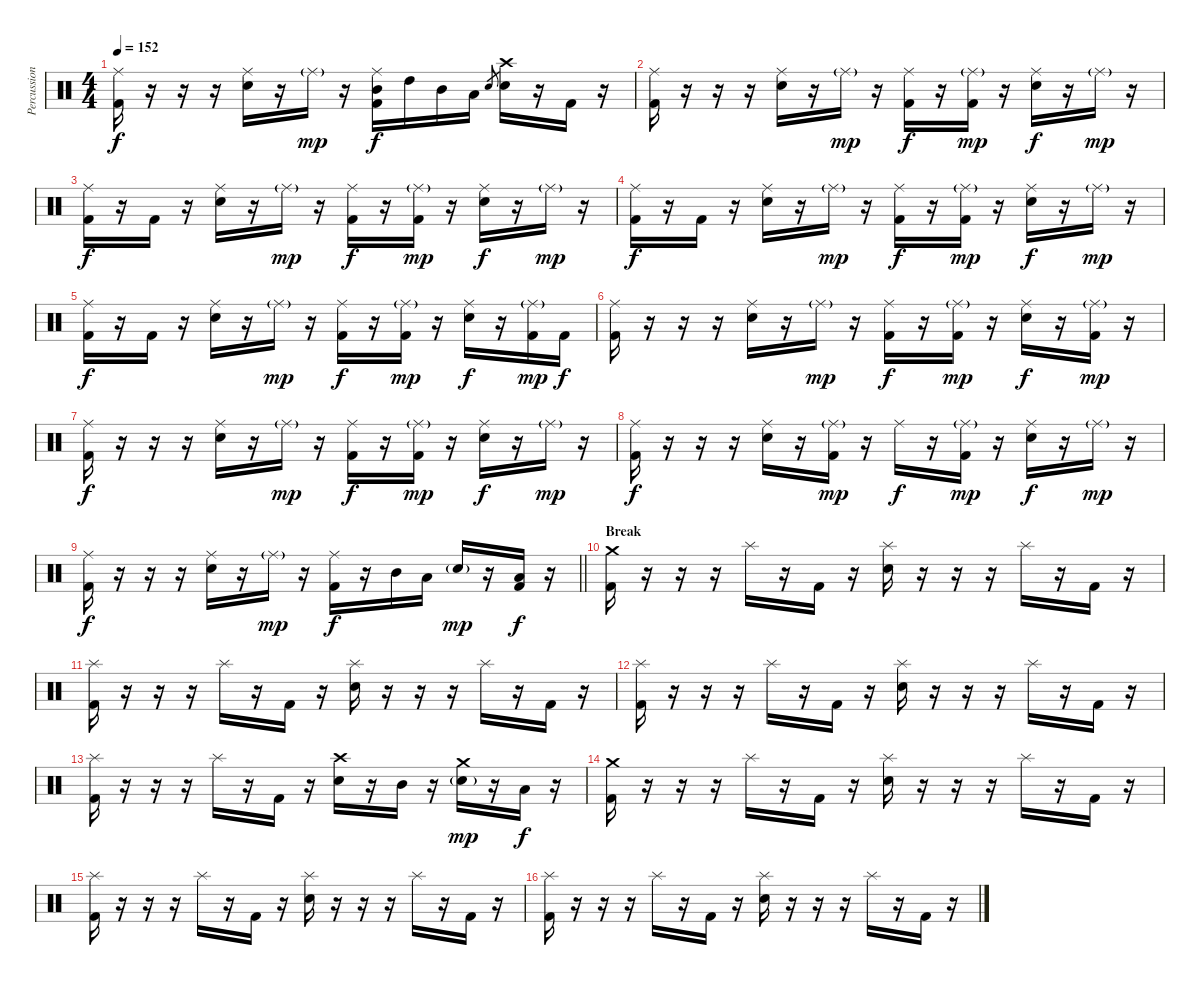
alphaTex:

\track ("Percussion" "Percussion") {instrument percussion}
\staff {score}
\articulation defaults
\ts (4 4)
\tempo 152
\clef neutral
\ks c
("Ride (middle)" "Kick (hit) 2").16{dy f} r.16 r.16 r.16 ("Ride (middle)" "Snare (hit) 2").16 r.16 "Ride (middle)"{g}.16{dy mp} r.16 ("Ride (middle)" "Mid Tom (hit)" "Kick (hit) 2").16{dy f} "High Tom (hit)".16 "Mid Tom (hit)".16 "Low Tom (hit)".16 "Snare (hit) 2".8{gr} ("Crash high (hit)" "Snare (hit) 2").16 r.16 "Kick (hit) 2".16 r.16 |
("Ride (middle)" "Kick (hit) 2").16 r.16 r.16 r.16 ("Ride (middle)" "Snare (hit) 2").16 r.16 "Ride (middle)"{g}.16{dy mp} r.16 ("Ride (middle)" "Kick (hit) 2").16{dy f} r.16 ("Ride (middle)"{g} "Kick (hit) 2").16{dy mp} r.16 ("Ride (middle)" "Snare (hit) 2").16{dy f} r.16 "Ride (middle)"{g}.16{dy mp} r.16 |
("Ride (middle)" "Kick (hit) 2").16{dy f} r.16 "Kick (hit) 2".16 r.16 ("Ride (middle)" "Snare (hit) 2").16 r.16 "Ride (middle)"{g}.16{dy mp} r.16 ("Ride (middle)" "Kick (hit) 2").16{dy f} r.16 ("Ride (middle)"{g} "Kick (hit) 2").16{dy mp} r.16 ("Ride (middle)" "Snare (hit) 2").16{dy f} r.16 "Ride (middle)"{g}.16{dy mp} r.16 |
("Ride (middle)" "Kick (hit) 2").16{dy f} r.16 "Kick (hit) 2".16 r.16 ("Ride (middle)" "Snare (hit) 2").16 r.16 "Ride (middle)"{g}.16{dy mp} r.16 ("Ride (middle)" "Kick (hit) 2").16{dy f} r.16 ("Ride (middle)"{g} "Kick (hit) 2").16{dy mp} r.16 ("Ride (middle)" "Snare (hit) 2").16{dy f} r.16 "Ride (middle)"{g}.16{dy mp} r.16 |
("Ride (middle)" "Kick (hit) 2").16{dy f} r.16 "Kick (hit) 2".16 r.16 ("Ride (middle)" "Snare (hit) 2").16 r.16 "Ride (middle)"{g}.16{dy mp} r.16 ("Ride (middle)" "Kick (hit) 2").16{dy f} r.16 ("Ride (middle)"{g} "Kick (hit) 2").16{dy mp} r.16 ("Ride (middle)" "Snare (hit) 2").16{dy f} r.16 ("Ride (middle)"{g} "Kick (hit) 2").16{dy mp} "Kick (hit) 2".16{dy f} |
("Ride (middle)" "Kick (hit) 2").16 r.16 r.16 r.16 ("Ride (middle)" "Snare (hit) 2").16 r.16 "Ride (middle)"{g}.16{dy mp} r.16 ("Ride (middle)" "Kick (hit) 2").16{dy f} r.16 ("Ride (middle)"{g} "Kick (hit) 2").16{dy mp} r.16 ("Ride (middle)" "Snare (hit) 2").16{dy f} r.16 ("Ride (middle)"{g} "Kick (hit) 2").16{dy mp} r.16 |
("Ride (middle)" "Kick (hit) 2").16{dy f} r.16 r.16 r.16 ("Ride (middle)" "Snare (hit) 2").16 r.16 "Ride (middle)"{g}.16{dy mp} r.16 ("Ride (middle)" "Kick (hit) 2").16{dy f} r.16 ("Ride (middle)"{g} "Kick (hit) 2").16{dy mp} r.16 ("Ride (middle)" "Snare (hit) 2").16{dy f} r.16 "Ride (middle)"{g}.16{dy mp} r.16 |
("Ride (middle)" "Kick (hit) 2").16{dy f} r.16 r.16 r.16 ("Ride (middle)" "Snare (hit) 2").16 r.16 ("Ride (middle)"{g} "Kick (hit) 2").16{dy mp} r.16 "Ride (middle)".16{dy f} r.16 ("Ride (middle)"{g} "Kick (hit) 2").16{dy mp} r.16 ("Ride (middle)" "Snare (hit) 2").16{dy f} r.16 "Ride (middle)"{g}.16{dy mp} r.16 |
\barLineRight lightlight
("Ride (middle)" "Kick (hit) 2").16{dy f} r.16 r.16 r.16 ("Ride (middle)" "Snare (hit) 2").16 r.16 "Ride (middle)"{g}.16{dy mp} r.16 ("Ride (middle)" "Kick (hit) 2").16{dy f} r.16 "Mid Tom (hit)".16 "Low Tom (hit)".16 "Snare (hit) 2"{g}.16{dy mp} r.16 ("Low Tom (hit)" "Kick (hit) 2").16{dy f} r.16 |
\section ("" "Break")
("Crash medium (hit)" "Kick (hit) 2").16 r.16 r.16 r.16 "Splash (hit)".16 r.16 "Kick (hit) 2".16 r.16 ("Splash (hit)" "Snare (hit) 2").16 r.16 r.16 r.16 "Splash (hit)".16 r.16 "Kick (hit) 2".16 r.16 |
("Splash (hit)" "Kick (hit) 2").16 r.16 r.16 r.16 "Splash (hit)".16 r.16 "Kick (hit) 2".16 r.16 ("Splash (hit)" "Snare (hit) 2").16 r.16 r.16 r.16 "Splash (hit)".16 r.16 "Kick (hit) 2".16 r.16 |
("Splash (hit)" "Kick (hit) 2").16 r.16 r.16 r.16 "Splash (hit)".16 r.16 "Kick (hit) 2".16 r.16 ("Splash (hit)" "Snare (hit) 2").16 r.16 r.16 r.16 "Splash (hit)".16 r.16 "Kick (hit) 2".16 r.16 |
("Splash (hit)" "Kick (hit) 2").16 r.16 r.16 r.16 "Splash (hit)".16 r.16 "Kick (hit) 2".16 r.16 ("Crash high (hit)" "Snare (hit) 2").16 r.16 "Mid Tom (hit)".16 r.16 ("Crash medium (hit)" "Snare (hit) 2"{g}).16{dy mp} r.16 "Low Tom (hit)".16{dy f} r.16 |
("Crash medium (hit)" "Kick (hit) 2").16 r.16 r.16 r.16 "Splash (hit)".16 r.16 "Kick (hit) 2".16 r.16 ("Splash (hit)" "Snare (hit) 2").16 r.16 r.16 r.16 "Splash (hit)".16 r.16 "Kick (hit) 2".16 r.16 |
("Splash (hit)" "Kick (hit) 2").16 r.16 r.16 r.16 "Splash (hit)".16 r.16 "Kick (hit) 2".16 r.16 ("Splash (hit)" "Snare (hit) 2").16 r.16 r.16 r.16 "Splash (hit)".16 r.16 "Kick (hit) 2".16 r.16 |
("Splash (hit)" "Kick (hit) 2").16 r.16 r.16 r.16 "Splash (hit)".16 r.16 "Kick (hit) 2".16 r.16 ("Splash (hit)" "Snare (hit) 2").16 r.16 r.16 r.16 "Splash (hit)".16 r.16 "Kick (hit) 2".16 r.16
